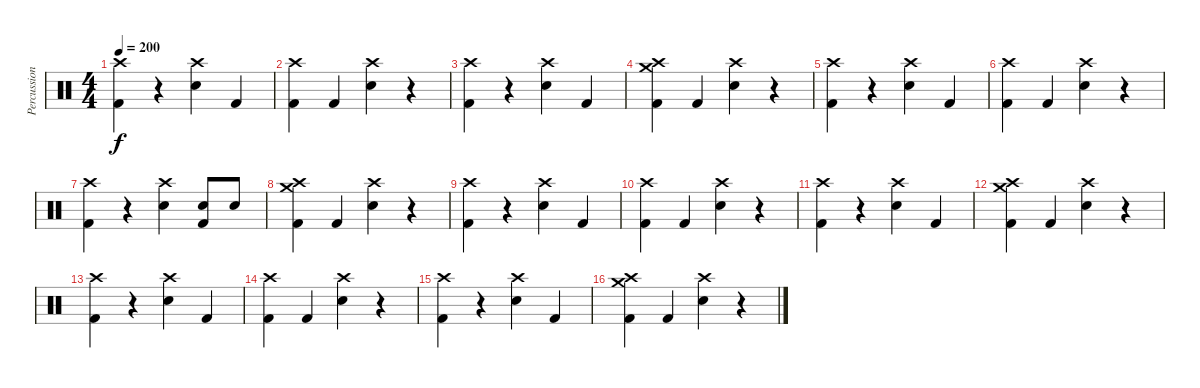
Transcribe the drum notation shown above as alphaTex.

\track ("Percussion" "Percussion") {instrument percussion}
\staff {score}
\articulation defaults
\ts (4 4)
\tempo 200
\clef neutral
\ks c
("Crash high (hit)" "Kick (hit) 2").4{dy f} r.4 ("Crash high (hit)" "Electric Snare (hit)").4 "Kick (hit) 2".4 |
("Crash high (hit)" "Kick (hit) 2").4 "Kick (hit) 2".4 ("Crash high (hit)" "Electric Snare (hit)").4 r.4 |
("Crash high (hit)" "Kick (hit) 2").4 r.4 ("Crash high (hit)" "Electric Snare (hit)").4 "Kick (hit) 2".4 |
("Crash high (hit)" "Crash medium (hit)" "Kick (hit) 2").4 "Kick (hit) 2".4 ("Crash high (hit)" "Electric Snare (hit)").4 r.4 |
("Crash high (hit)" "Kick (hit) 2").4 r.4 ("Crash high (hit)" "Electric Snare (hit)").4 "Kick (hit) 2".4 |
("Crash high (hit)" "Kick (hit) 2").4 "Kick (hit) 2".4 ("Crash high (hit)" "Electric Snare (hit)").4 r.4 |
("Crash high (hit)" "Kick (hit) 2").4 r.4 ("Crash high (hit)" "Electric Snare (hit)").4 ("Electric Snare (hit)" "Kick (hit) 2").8 "Electric Snare (hit)".8 |
("Crash high (hit)" "Crash medium (hit)" "Kick (hit) 2").4 "Kick (hit) 2".4 ("Crash high (hit)" "Electric Snare (hit)").4 r.4 |
("Crash high (hit)" "Kick (hit) 2").4 r.4 ("Crash high (hit)" "Electric Snare (hit)").4 "Kick (hit) 2".4 |
("Crash high (hit)" "Kick (hit) 2").4 "Kick (hit) 2".4 ("Crash high (hit)" "Electric Snare (hit)").4 r.4 |
("Crash high (hit)" "Kick (hit) 2").4 r.4 ("Crash high (hit)" "Electric Snare (hit)").4 "Kick (hit) 2".4 |
("Crash high (hit)" "Crash medium (hit)" "Kick (hit) 2").4 "Kick (hit) 2".4 ("Crash high (hit)" "Electric Snare (hit)").4 r.4 |
("Crash high (hit)" "Kick (hit) 2").4 r.4 ("Crash high (hit)" "Electric Snare (hit)").4 "Kick (hit) 2".4 |
("Crash high (hit)" "Kick (hit) 2").4 "Kick (hit) 2".4 ("Crash high (hit)" "Electric Snare (hit)").4 r.4 |
("Crash high (hit)" "Kick (hit) 2").4 r.4 ("Crash high (hit)" "Electric Snare (hit)").4 "Kick (hit) 2".4 |
("Crash high (hit)" "Crash medium (hit)" "Kick (hit) 2").4 "Kick (hit) 2".4 ("Crash high (hit)" "Electric Snare (hit)").4 r.4
